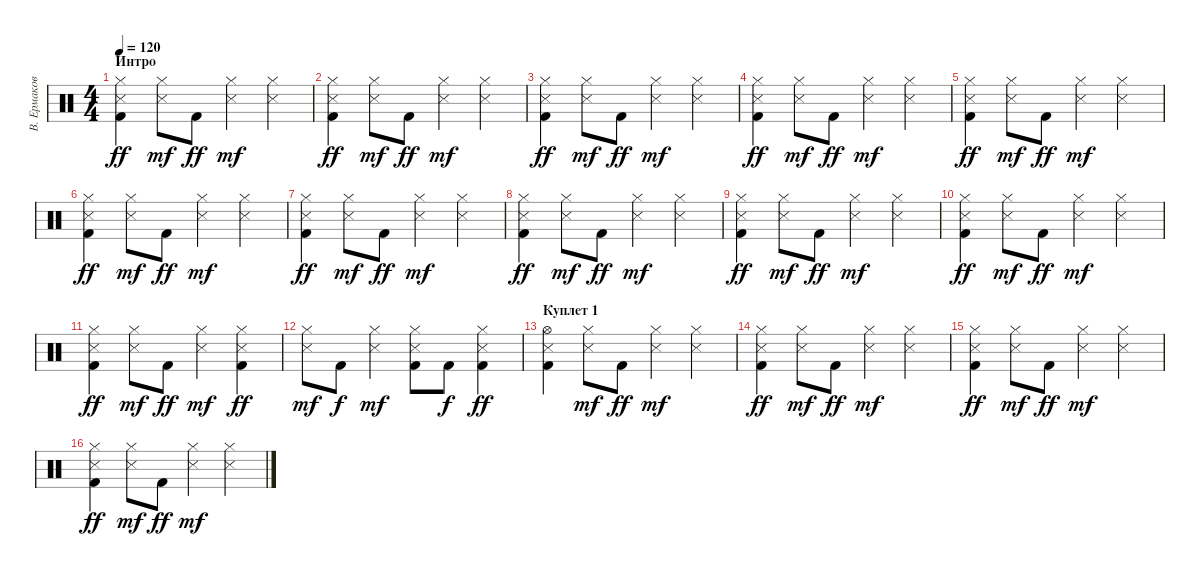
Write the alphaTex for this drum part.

\track ("В. Ермаков" "В. Ермаков") {instrument percussion}
\staff {score}
\articulation defaults
\ts (4 4)
\section ("" "Интро")
\tempo 120
\clef neutral
\ks c
("Snare (side stick) 3" "Kick (hit) 2" "Hi-Hat (closed)").4{dy ff} ("Snare (side stick) 3" "Hi-Hat (closed)").8{dy mf} "Kick (hit) 2".8{dy ff} ("Snare (side stick) 3" "Hi-Hat (closed)").4{dy mf} ("Snare (side stick) 3" "Hi-Hat (closed)").4 |
("Snare (side stick) 3" "Kick (hit) 2" "Hi-Hat (closed)").4{dy ff} ("Snare (side stick) 3" "Hi-Hat (closed)").8{dy mf} "Kick (hit) 2".8{dy ff} ("Snare (side stick) 3" "Hi-Hat (closed)").4{dy mf} ("Snare (side stick) 3" "Hi-Hat (closed)").4 |
("Snare (side stick) 3" "Kick (hit) 2" "Hi-Hat (closed)").4{dy ff} ("Snare (side stick) 3" "Hi-Hat (closed)").8{dy mf} "Kick (hit) 2".8{dy ff} ("Snare (side stick) 3" "Hi-Hat (closed)").4{dy mf} ("Snare (side stick) 3" "Hi-Hat (closed)").4 |
("Snare (side stick) 3" "Kick (hit) 2" "Hi-Hat (closed)").4{dy ff} ("Snare (side stick) 3" "Hi-Hat (closed)").8{dy mf} "Kick (hit) 2".8{dy ff} ("Snare (side stick) 3" "Hi-Hat (closed)").4{dy mf} ("Snare (side stick) 3" "Hi-Hat (closed)").4 |
("Snare (side stick) 3" "Kick (hit) 2" "Hi-Hat (closed)").4{dy ff} ("Snare (side stick) 3" "Hi-Hat (closed)").8{dy mf} "Kick (hit) 2".8{dy ff} ("Snare (side stick) 3" "Hi-Hat (closed)").4{dy mf} ("Snare (side stick) 3" "Hi-Hat (closed)").4 |
("Snare (side stick) 3" "Kick (hit) 2" "Hi-Hat (closed)").4{dy ff} ("Snare (side stick) 3" "Hi-Hat (closed)").8{dy mf} "Kick (hit) 2".8{dy ff} ("Snare (side stick) 3" "Hi-Hat (closed)").4{dy mf} ("Snare (side stick) 3" "Hi-Hat (closed)").4 |
("Snare (side stick) 3" "Kick (hit) 2" "Hi-Hat (closed)").4{dy ff} ("Snare (side stick) 3" "Hi-Hat (closed)").8{dy mf} "Kick (hit) 2".8{dy ff} ("Snare (side stick) 3" "Hi-Hat (closed)").4{dy mf} ("Snare (side stick) 3" "Hi-Hat (closed)").4 |
("Snare (side stick) 3" "Kick (hit) 2" "Hi-Hat (closed)").4{dy ff} ("Snare (side stick) 3" "Hi-Hat (closed)").8{dy mf} "Kick (hit) 2".8{dy ff} ("Snare (side stick) 3" "Hi-Hat (closed)").4{dy mf} ("Snare (side stick) 3" "Hi-Hat (closed)").4 |
("Snare (side stick) 3" "Kick (hit) 2" "Hi-Hat (closed)").4{dy ff} ("Snare (side stick) 3" "Hi-Hat (closed)").8{dy mf} "Kick (hit) 2".8{dy ff} ("Snare (side stick) 3" "Hi-Hat (closed)").4{dy mf} ("Snare (side stick) 3" "Hi-Hat (closed)").4 |
("Snare (side stick) 3" "Kick (hit) 2" "Hi-Hat (closed)").4{dy ff} ("Snare (side stick) 3" "Hi-Hat (closed)").8{dy mf} "Kick (hit) 2".8{dy ff} ("Snare (side stick) 3" "Hi-Hat (closed)").4{dy mf} ("Snare (side stick) 3" "Hi-Hat (closed)").4 |
("Snare (side stick) 3" "Kick (hit) 2" "Hi-Hat (closed)").4{dy ff} ("Snare (side stick) 3" "Hi-Hat (closed)").8{dy mf} "Kick (hit) 2".8{dy ff} ("Snare (side stick) 3" "Hi-Hat (closed)").4{dy mf} ("Snare (side stick) 3" "Kick (hit) 2" "Hi-Hat (closed)").4{dy ff} |
("Snare (side stick) 3" "Hi-Hat (closed)").8{dy mf} "Kick (hit) 2".8{dy f} ("Snare (side stick) 3" "Hi-Hat (closed)").4{dy mf} ("Snare (side stick) 3" "Kick (hit) 2" "Hi-Hat (closed)").8 "Kick (hit) 2".8{dy f} ("Snare (side stick) 3" "Kick (hit) 2" "Hi-Hat (closed)").4{dy ff} |
\section ("" "Куплет 1")
("Snare (side stick) 3" "Kick (hit) 2" "Hi-Hat (open)").4 ("Snare (side stick) 3" "Hi-Hat (closed)").8{dy mf} "Kick (hit) 2".8{dy ff} ("Snare (side stick) 3" "Hi-Hat (closed)").4{dy mf} ("Snare (side stick) 3" "Hi-Hat (closed)").4 |
("Snare (side stick) 3" "Kick (hit) 2" "Hi-Hat (closed)").4{dy ff} ("Snare (side stick) 3" "Hi-Hat (closed)").8{dy mf} "Kick (hit) 2".8{dy ff} ("Snare (side stick) 3" "Hi-Hat (closed)").4{dy mf} ("Snare (side stick) 3" "Hi-Hat (closed)").4 |
("Snare (side stick) 3" "Kick (hit) 2" "Hi-Hat (closed)").4{dy ff} ("Snare (side stick) 3" "Hi-Hat (closed)").8{dy mf} "Kick (hit) 2".8{dy ff} ("Snare (side stick) 3" "Hi-Hat (closed)").4{dy mf} ("Snare (side stick) 3" "Hi-Hat (closed)").4 |
("Snare (side stick) 3" "Kick (hit) 2" "Hi-Hat (closed)").4{dy ff} ("Snare (side stick) 3" "Hi-Hat (closed)").8{dy mf} "Kick (hit) 2".8{dy ff} ("Snare (side stick) 3" "Hi-Hat (closed)").4{dy mf} ("Snare (side stick) 3" "Hi-Hat (closed)").4
